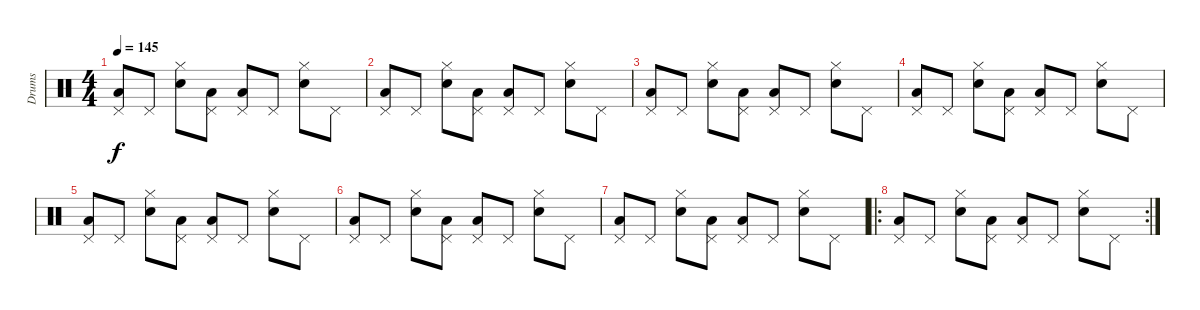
\track ("Drums" "Drums") {instrument percussion}
\staff {score}
\articulation defaults
\ts (4 4)
\tempo 145
\clef neutral
\ks c
("Low Floor Tom (hit)" "Pedal Hi-Hat (hit)").8{dy f} "Pedal Hi-Hat (hit)".8 ("Snare (hit) 2" "Hi-Hat (closed)").8 ("Low Floor Tom (hit)" "Pedal Hi-Hat (hit)").8 ("Low Floor Tom (hit)" "Pedal Hi-Hat (hit)").8 "Pedal Hi-Hat (hit)".8 ("Snare (hit) 2" "Hi-Hat (closed)").8 "Pedal Hi-Hat (hit)".8 |
("Low Floor Tom (hit)" "Pedal Hi-Hat (hit)").8 "Pedal Hi-Hat (hit)".8 ("Snare (hit) 2" "Hi-Hat (closed)").8 ("Low Floor Tom (hit)" "Pedal Hi-Hat (hit)").8 ("Low Floor Tom (hit)" "Pedal Hi-Hat (hit)").8 "Pedal Hi-Hat (hit)".8 ("Snare (hit) 2" "Hi-Hat (closed)").8 "Pedal Hi-Hat (hit)".8 |
("Low Floor Tom (hit)" "Pedal Hi-Hat (hit)").8 "Pedal Hi-Hat (hit)".8 ("Snare (hit) 2" "Hi-Hat (closed)").8 ("Low Floor Tom (hit)" "Pedal Hi-Hat (hit)").8 ("Low Floor Tom (hit)" "Pedal Hi-Hat (hit)").8 "Pedal Hi-Hat (hit)".8 ("Snare (hit) 2" "Hi-Hat (closed)").8 "Pedal Hi-Hat (hit)".8 |
("Low Floor Tom (hit)" "Pedal Hi-Hat (hit)").8 "Pedal Hi-Hat (hit)".8 ("Snare (hit) 2" "Hi-Hat (closed)").8 ("Low Floor Tom (hit)" "Pedal Hi-Hat (hit)").8 ("Low Floor Tom (hit)" "Pedal Hi-Hat (hit)").8 "Pedal Hi-Hat (hit)".8 ("Snare (hit) 2" "Hi-Hat (closed)").8 "Pedal Hi-Hat (hit)".8 |
("Low Floor Tom (hit)" "Pedal Hi-Hat (hit)").8 "Pedal Hi-Hat (hit)".8 ("Snare (hit) 2" "Hi-Hat (closed)").8 ("Low Floor Tom (hit)" "Pedal Hi-Hat (hit)").8 ("Low Floor Tom (hit)" "Pedal Hi-Hat (hit)").8 "Pedal Hi-Hat (hit)".8 ("Snare (hit) 2" "Hi-Hat (closed)").8 "Pedal Hi-Hat (hit)".8 |
("Low Floor Tom (hit)" "Pedal Hi-Hat (hit)").8 "Pedal Hi-Hat (hit)".8 ("Snare (hit) 2" "Hi-Hat (closed)").8 ("Low Floor Tom (hit)" "Pedal Hi-Hat (hit)").8 ("Low Floor Tom (hit)" "Pedal Hi-Hat (hit)").8 "Pedal Hi-Hat (hit)".8 ("Snare (hit) 2" "Hi-Hat (closed)").8 "Pedal Hi-Hat (hit)".8 |
("Low Floor Tom (hit)" "Pedal Hi-Hat (hit)").8 "Pedal Hi-Hat (hit)".8 ("Snare (hit) 2" "Hi-Hat (closed)").8 ("Low Floor Tom (hit)" "Pedal Hi-Hat (hit)").8 ("Low Floor Tom (hit)" "Pedal Hi-Hat (hit)").8 "Pedal Hi-Hat (hit)".8 ("Snare (hit) 2" "Hi-Hat (closed)").8 "Pedal Hi-Hat (hit)".8 |
\ro
\rc 2
("Low Floor Tom (hit)" "Pedal Hi-Hat (hit)").8 "Pedal Hi-Hat (hit)".8 ("Snare (hit) 2" "Hi-Hat (closed)").8 ("Low Floor Tom (hit)" "Pedal Hi-Hat (hit)").8 ("Low Floor Tom (hit)" "Pedal Hi-Hat (hit)").8 "Pedal Hi-Hat (hit)".8 ("Snare (hit) 2" "Hi-Hat (closed)").8 "Pedal Hi-Hat (hit)".8
